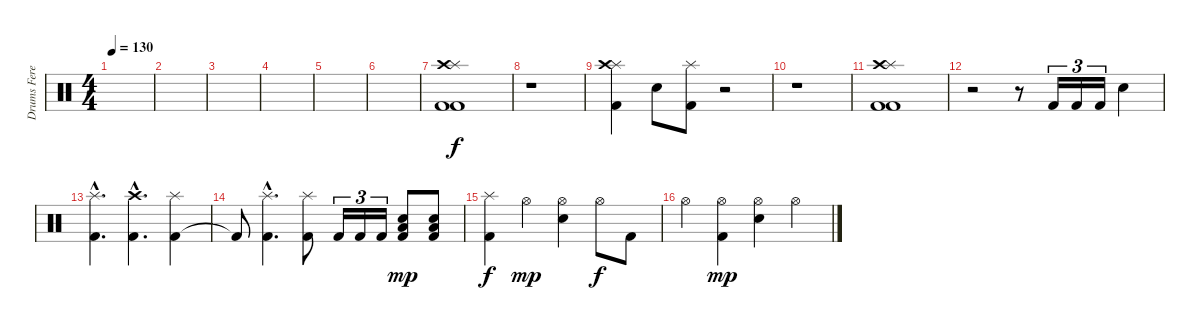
\track ("Drums Feret" "Drums Fere") {instrument percussion}
\staff {score}
\articulation defaults
\ts (4 4)
\tempo 130
\clef neutral
\ks c
|
|
|
|
|
|
("Kick (hit) 2" "Kick (hit) 2" "Splash (hit)" "Crash high (hit)").1 |
r.1 |
("Kick (hit) 2" "Splash (hit)" "Crash high (hit)").4 "Electric Snare (hit)".8 ("Kick (hit) 2" "Splash (hit)").8 r.2 |
r.1 |
("Kick (hit) 2" "Kick (hit) 2" "Splash (hit)" "Crash high (hit)").1 |
r.2 r.8 "Kick (hit) 2".16{tu (3 2)} "Kick (hit) 2".16{tu (3 2)} "Kick (hit) 2".16{tu (3 2)} "Electric Snare (hit)".4 |
("Kick (hit) 2"{hac} "Splash (hit)"{hac}).4{d} ("Kick (hit) 2"{hac} "Crash high (hit)"{hac}).4{d} ("Kick (hit) 2" "Splash (hit)").4 |
"Kick (hit) 2"{t}.8 ("Kick (hit) 2"{hac} "Splash (hit)"{hac}).4{d} ("Kick (hit) 2" "Splash (hit)").8 "Kick (hit) 2".16{tu (3 2)} "Kick (hit) 2".16{tu (3 2)} "Kick (hit) 2".16{tu (3 2)} ("Kick (hit) 2" "Low Floor Tom (hit)" "Electric Snare (hit)").8{dy mp} ("Kick (hit) 2" "Low Floor Tom (hit)" "Electric Snare (hit)").8 |
("Kick (hit) 2" "Splash (hit)").4{dy f} "Hi-Hat (open)".4{dy mp} ("Electric Snare (hit)" "Hi-Hat (open)").4 "Hi-Hat (open)".8{dy f} "Kick (hit) 2".8 |
"Hi-Hat (open)".4 ("Kick (hit) 2" "Hi-Hat (open)").4{dy mp} ("Electric Snare (hit)" "Hi-Hat (open)").4 "Hi-Hat (open)".4
